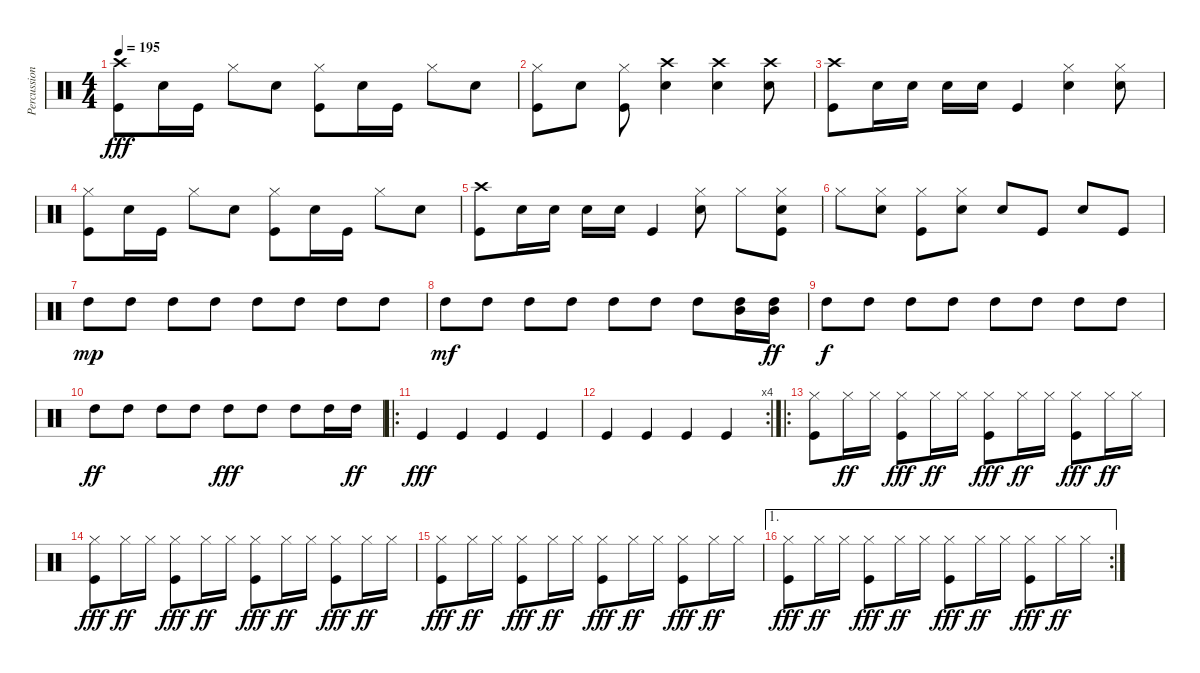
\track ("Percussions" "Percussion") {instrument percussion}
\staff {score}
\articulation defaults
\ts (4 4)
\tempo 195
\clef neutral
\ks c
("Crash high (hit)" "Kick (hit)").8{dy fff} "Electric Snare (hit)".16 "Kick (hit)".16 "Hi-Hat (closed)".8 "Electric Snare (hit)".8 ("Hi-Hat (closed)" "Kick (hit)").8 "Electric Snare (hit)".16 "Kick (hit)".16 "Hi-Hat (closed)".8 "Electric Snare (hit)".8 |
("Hi-Hat (closed)" "Kick (hit)").8 "Electric Snare (hit)".8 ("Hi-Hat (closed)" "Kick (hit)").8 ("Crash high (hit)" "Electric Snare (hit)").4 ("Crash high (hit)" "Electric Snare (hit)").4 ("Crash high (hit)" "Electric Snare (hit)").8 |
("Crash high (hit)" "Kick (hit)").8 "Electric Snare (hit)".16 "Electric Snare (hit)".16 "Electric Snare (hit)".16 "Electric Snare (hit)".16 "Kick (hit)".4 ("Hi-Hat (closed)" "Electric Snare (hit)").4 ("Hi-Hat (closed)" "Electric Snare (hit)").8 |
("Hi-Hat (closed)" "Kick (hit)").8 "Electric Snare (hit)".16 "Kick (hit)".16 "Hi-Hat (closed)".8 "Electric Snare (hit)".8 ("Hi-Hat (closed)" "Kick (hit)").8 "Electric Snare (hit)".16 "Kick (hit)".16 "Hi-Hat (closed)".8 "Electric Snare (hit)".8 |
("Crash high (hit)" "Kick (hit)").8 "Electric Snare (hit)".16 "Electric Snare (hit)".16 "Electric Snare (hit)".16 "Electric Snare (hit)".16 "Kick (hit)".4 ("Hi-Hat (closed)" "Electric Snare (hit)").8 "Hi-Hat (closed)".8 ("Hi-Hat (closed)" "Electric Snare (hit)" "Kick (hit)").8 |
"Hi-Hat (closed)".8 ("Hi-Hat (closed)" "Electric Snare (hit)").8 ("Hi-Hat (closed)" "Kick (hit)").8 ("Hi-Hat (closed)" "Electric Snare (hit)").8 "Electric Snare (hit)".8 "Kick (hit)".8 "Electric Snare (hit)".8 "Kick (hit)".8 |
"High Tom (hit)".8{dy mp} "High Tom (hit)".8 "High Tom (hit)".8 "High Tom (hit)".8 "High Tom (hit)".8 "High Tom (hit)".8 "High Tom (hit)".8 "High Tom (hit)".8 |
"High Tom (hit)".8{dy mf} "High Tom (hit)".8 "High Tom (hit)".8 "High Tom (hit)".8 "High Tom (hit)".8 "High Tom (hit)".8 "High Tom (hit)".8 ("Mid Tom (hit)" "High Tom (hit)").16 ("Mid Tom (hit)" "High Tom (hit)").16{dy ff} |
"High Tom (hit)".8{dy f} "High Tom (hit)".8 "High Tom (hit)".8 "High Tom (hit)".8 "High Tom (hit)".8 "High Tom (hit)".8 "High Tom (hit)".8 "High Tom (hit)".8 |
"High Tom (hit)".8{dy ff} "High Tom (hit)".8 "High Tom (hit)".8 "High Tom (hit)".8 "High Tom (hit)".8{dy fff} "High Tom (hit)".8 "High Tom (hit)".8 "High Tom (hit)".16 "High Tom (hit)".16{dy ff} |
\ro "Kick (hit)".4{dy fff} "Kick (hit)".4 "Kick (hit)".4 "Kick (hit)".4
|
\rc 4 "Kick (hit)".4 "Kick (hit)".4 "Kick (hit)".4 "Kick (hit)".4
|
\ro
("Hi-Hat (closed)" "Kick (hit)").8 "Hi-Hat (closed)".16{dy ff} "Hi-Hat (closed)".16 ("Hi-Hat (closed)" "Kick (hit)").8{dy fff} "Hi-Hat (closed)".16{dy ff} "Hi-Hat (closed)".16 ("Hi-Hat (closed)" "Kick (hit)").8{dy fff} "Hi-Hat (closed)".16{dy ff} "Hi-Hat (closed)".16 ("Hi-Hat (closed)" "Kick (hit)").8{dy fff} "Hi-Hat (closed)".16{dy ff} "Hi-Hat (closed)".16 |
("Hi-Hat (closed)" "Kick (hit)").8{dy fff} "Hi-Hat (closed)".16{dy ff} "Hi-Hat (closed)".16 ("Hi-Hat (closed)" "Kick (hit)").8{dy fff} "Hi-Hat (closed)".16{dy ff} "Hi-Hat (closed)".16 ("Hi-Hat (closed)" "Kick (hit)").8{dy fff} "Hi-Hat (closed)".16{dy ff} "Hi-Hat (closed)".16 ("Hi-Hat (closed)" "Kick (hit)").8{dy fff} "Hi-Hat (closed)".16{dy ff} "Hi-Hat (closed)".16 |
("Hi-Hat (closed)" "Kick (hit)").8{dy fff} "Hi-Hat (closed)".16{dy ff} "Hi-Hat (closed)".16 ("Hi-Hat (closed)" "Kick (hit)").8{dy fff} "Hi-Hat (closed)".16{dy ff} "Hi-Hat (closed)".16 ("Hi-Hat (closed)" "Kick (hit)").8{dy fff} "Hi-Hat (closed)".16{dy ff} "Hi-Hat (closed)".16 ("Hi-Hat (closed)" "Kick (hit)").8{dy fff} "Hi-Hat (closed)".16{dy ff} "Hi-Hat (closed)".16 |
\ae 1
\rc 2
("Hi-Hat (closed)" "Kick (hit)").8{dy fff} "Hi-Hat (closed)".16{dy ff} "Hi-Hat (closed)".16 ("Hi-Hat (closed)" "Kick (hit)").8{dy fff} "Hi-Hat (closed)".16{dy ff} "Hi-Hat (closed)".16 ("Hi-Hat (closed)" "Kick (hit)").8{dy fff} "Hi-Hat (closed)".16{dy ff} "Hi-Hat (closed)".16 ("Hi-Hat (closed)" "Kick (hit)").8{dy fff} "Hi-Hat (closed)".16{dy ff} "Hi-Hat (closed)".16
